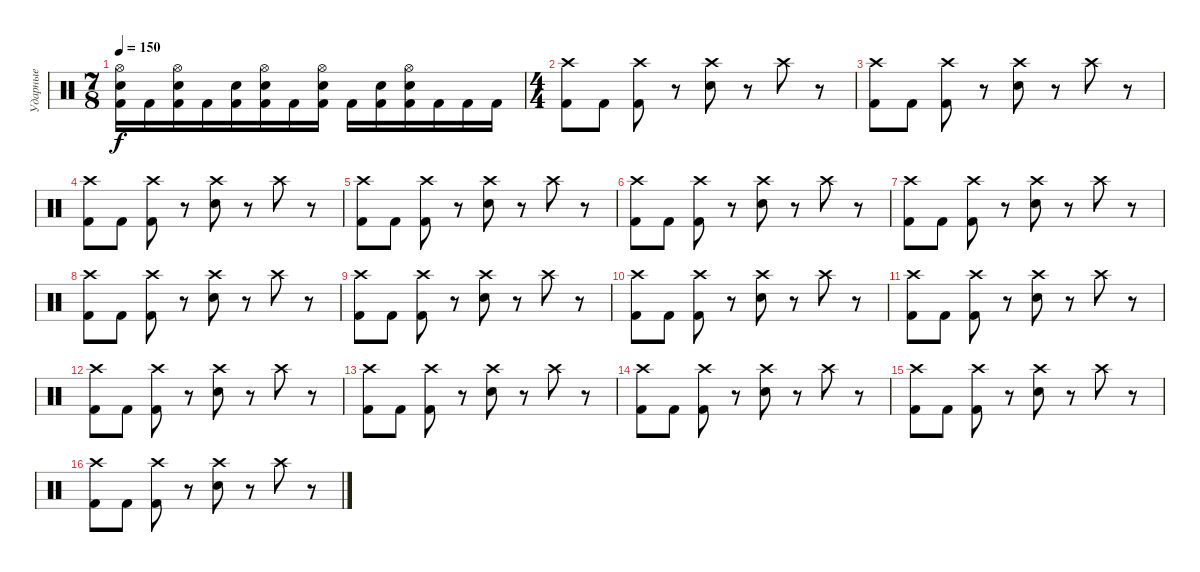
\track ("Ударные" "Ударные") {instrument percussion}
\staff {score}
\articulation defaults
\ts (7 8)
\tempo 150
\clef neutral
\ks c
("Hi-Hat (open)" "Electric Snare (hit)" "Kick (hit) 2").16{dy f} "Kick (hit) 2".16 ("Hi-Hat (open)" "Electric Snare (hit)" "Kick (hit) 2").16 "Kick (hit) 2".16 ("Electric Snare (hit)" "Kick (hit) 2").16 ("Hi-Hat (open)" "Electric Snare (hit)" "Kick (hit) 2").16 "Kick (hit) 2".16 ("Hi-Hat (open)" "Electric Snare (hit)" "Kick (hit) 2").16 "Kick (hit) 2".16 ("Electric Snare (hit)" "Kick (hit) 2").16 ("Hi-Hat (open)" "Electric Snare (hit)" "Kick (hit) 2").16 "Kick (hit) 2".16 "Kick (hit) 2".16 "Kick (hit) 2".16 |
\ts (4 4)
("Crash high (hit)" "Kick (hit) 2").8 "Kick (hit) 2".8 ("Crash high (hit)" "Kick (hit) 2").8 r.8 ("Crash high (hit)" "Electric Snare (hit)").8 r.8 "Crash high (hit)".8 r.8 |
("Crash high (hit)" "Kick (hit) 2").8 "Kick (hit) 2".8 ("Crash high (hit)" "Kick (hit) 2").8 r.8 ("Crash high (hit)" "Electric Snare (hit)").8 r.8 "Crash high (hit)".8 r.8 |
("Crash high (hit)" "Kick (hit) 2").8 "Kick (hit) 2".8 ("Crash high (hit)" "Kick (hit) 2").8 r.8 ("Crash high (hit)" "Electric Snare (hit)").8 r.8 "Crash high (hit)".8 r.8 |
("Crash high (hit)" "Kick (hit) 2").8 "Kick (hit) 2".8 ("Crash high (hit)" "Kick (hit) 2").8 r.8 ("Crash high (hit)" "Electric Snare (hit)").8 r.8 "Crash high (hit)".8 r.8 |
("Crash high (hit)" "Kick (hit) 2").8 "Kick (hit) 2".8 ("Crash high (hit)" "Kick (hit) 2").8 r.8 ("Crash high (hit)" "Electric Snare (hit)").8 r.8 "Crash high (hit)".8 r.8 |
("Crash high (hit)" "Kick (hit) 2").8 "Kick (hit) 2".8 ("Crash high (hit)" "Kick (hit) 2").8 r.8 ("Crash high (hit)" "Electric Snare (hit)").8 r.8 "Crash high (hit)".8 r.8 |
("Crash high (hit)" "Kick (hit) 2").8 "Kick (hit) 2".8 ("Crash high (hit)" "Kick (hit) 2").8 r.8 ("Crash high (hit)" "Electric Snare (hit)").8 r.8 "Crash high (hit)".8 r.8 |
("Crash high (hit)" "Kick (hit) 2").8 "Kick (hit) 2".8 ("Crash high (hit)" "Kick (hit) 2").8 r.8 ("Crash high (hit)" "Electric Snare (hit)").8 r.8 "Crash high (hit)".8 r.8 |
("Crash high (hit)" "Kick (hit) 2").8 "Kick (hit) 2".8 ("Crash high (hit)" "Kick (hit) 2").8 r.8 ("Crash high (hit)" "Electric Snare (hit)").8 r.8 "Crash high (hit)".8 r.8 |
("Crash high (hit)" "Kick (hit) 2").8 "Kick (hit) 2".8 ("Crash high (hit)" "Kick (hit) 2").8 r.8 ("Crash high (hit)" "Electric Snare (hit)").8 r.8 "Crash high (hit)".8 r.8 |
("Crash high (hit)" "Kick (hit) 2").8 "Kick (hit) 2".8 ("Crash high (hit)" "Kick (hit) 2").8 r.8 ("Crash high (hit)" "Electric Snare (hit)").8 r.8 "Crash high (hit)".8 r.8 |
("Crash high (hit)" "Kick (hit) 2").8 "Kick (hit) 2".8 ("Crash high (hit)" "Kick (hit) 2").8 r.8 ("Crash high (hit)" "Electric Snare (hit)").8 r.8 "Crash high (hit)".8 r.8 |
("Crash high (hit)" "Kick (hit) 2").8 "Kick (hit) 2".8 ("Crash high (hit)" "Kick (hit) 2").8 r.8 ("Crash high (hit)" "Electric Snare (hit)").8 r.8 "Crash high (hit)".8 r.8 |
("Crash high (hit)" "Kick (hit) 2").8 "Kick (hit) 2".8 ("Crash high (hit)" "Kick (hit) 2").8 r.8 ("Crash high (hit)" "Electric Snare (hit)").8 r.8 "Crash high (hit)".8 r.8 |
("Crash high (hit)" "Kick (hit) 2").8 "Kick (hit) 2".8 ("Crash high (hit)" "Kick (hit) 2").8 r.8 ("Crash high (hit)" "Electric Snare (hit)").8 r.8 "Crash high (hit)".8 r.8
